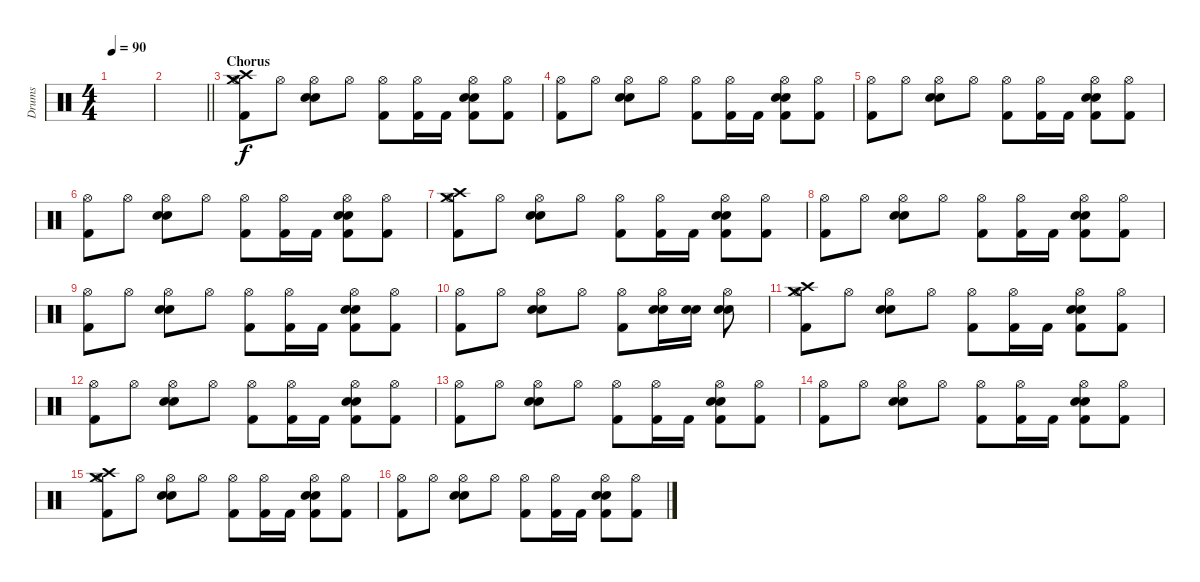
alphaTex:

\track ("Drums" "Drums") {instrument percussion}
\staff {score}
\articulation defaults
\ts (4 4)
\tempo 90
\clef neutral
\ks c
|
\barLineRight lightlight
|
\section ("" "Chorus")
("Hi-Hat (open)" "Crash high (hit)" "Crash medium (hit)" "Kick (hit) 2").8 "Hi-Hat (open)".8 ("Hi-Hat (open)" "Electric Snare (hit)" "Electric Snare (hit)").8 "Hi-Hat (open)".8 ("Hi-Hat (open)" "Kick (hit) 2").8 ("Hi-Hat (open)" "Kick (hit) 2").16 "Kick (hit) 2".16 ("Hi-Hat (open)" "Electric Snare (hit)" "Electric Snare (hit)" "Kick (hit) 2").8 ("Hi-Hat (open)" "Kick (hit) 2").8 |
("Hi-Hat (open)" "Kick (hit) 2").8 "Hi-Hat (open)".8 ("Hi-Hat (open)" "Electric Snare (hit)" "Electric Snare (hit)").8 "Hi-Hat (open)".8 ("Hi-Hat (open)" "Kick (hit) 2").8 ("Hi-Hat (open)" "Kick (hit) 2").16 "Kick (hit) 2".16 ("Hi-Hat (open)" "Electric Snare (hit)" "Electric Snare (hit)" "Kick (hit) 2").8 ("Hi-Hat (open)" "Kick (hit) 2").8 |
("Hi-Hat (open)" "Kick (hit) 2").8 "Hi-Hat (open)".8 ("Hi-Hat (open)" "Electric Snare (hit)" "Electric Snare (hit)").8 "Hi-Hat (open)".8 ("Hi-Hat (open)" "Kick (hit) 2").8 ("Hi-Hat (open)" "Kick (hit) 2").16 "Kick (hit) 2".16 ("Hi-Hat (open)" "Electric Snare (hit)" "Electric Snare (hit)" "Kick (hit) 2").8 ("Hi-Hat (open)" "Kick (hit) 2").8 |
("Hi-Hat (open)" "Kick (hit) 2").8 "Hi-Hat (open)".8 ("Hi-Hat (open)" "Electric Snare (hit)" "Electric Snare (hit)").8 "Hi-Hat (open)".8 ("Hi-Hat (open)" "Kick (hit) 2").8 ("Hi-Hat (open)" "Kick (hit) 2").16 "Kick (hit) 2".16 ("Hi-Hat (open)" "Electric Snare (hit)" "Electric Snare (hit)" "Kick (hit) 2").8 ("Hi-Hat (open)" "Kick (hit) 2").8 |
("Hi-Hat (open)" "Crash high (hit)" "Crash medium (hit)" "Kick (hit) 2").8 "Hi-Hat (open)".8 ("Hi-Hat (open)" "Electric Snare (hit)" "Electric Snare (hit)").8 "Hi-Hat (open)".8 ("Hi-Hat (open)" "Kick (hit) 2").8 ("Hi-Hat (open)" "Kick (hit) 2").16 "Kick (hit) 2".16 ("Hi-Hat (open)" "Electric Snare (hit)" "Electric Snare (hit)" "Kick (hit) 2").8 ("Hi-Hat (open)" "Kick (hit) 2").8 |
("Hi-Hat (open)" "Kick (hit) 2").8 "Hi-Hat (open)".8 ("Hi-Hat (open)" "Electric Snare (hit)" "Electric Snare (hit)").8 "Hi-Hat (open)".8 ("Hi-Hat (open)" "Kick (hit) 2").8 ("Hi-Hat (open)" "Kick (hit) 2").16 "Kick (hit) 2".16 ("Hi-Hat (open)" "Electric Snare (hit)" "Electric Snare (hit)" "Kick (hit) 2").8 ("Hi-Hat (open)" "Kick (hit) 2").8 |
("Hi-Hat (open)" "Kick (hit) 2").8 "Hi-Hat (open)".8 ("Hi-Hat (open)" "Electric Snare (hit)" "Electric Snare (hit)").8 "Hi-Hat (open)".8 ("Hi-Hat (open)" "Kick (hit) 2").8 ("Hi-Hat (open)" "Kick (hit) 2").16 "Kick (hit) 2".16 ("Hi-Hat (open)" "Electric Snare (hit)" "Electric Snare (hit)" "Kick (hit) 2").8 ("Hi-Hat (open)" "Kick (hit) 2").8 |
("Hi-Hat (open)" "Kick (hit) 2").8 "Hi-Hat (open)".8 ("Hi-Hat (open)" "Electric Snare (hit)" "Electric Snare (hit)").8 "Hi-Hat (open)".8 ("Hi-Hat (open)" "Kick (hit) 2").8 ("Hi-Hat (open)" "Electric Snare (hit)" "Electric Snare (hit)").16 ("Electric Snare (hit)" "Electric Snare (hit)").16 ("Hi-Hat (open)" "Electric Snare (hit)" "Electric Snare (hit)").8 |
("Hi-Hat (open)" "Crash high (hit)" "Crash medium (hit)" "Kick (hit) 2").8 "Hi-Hat (open)".8 ("Hi-Hat (open)" "Electric Snare (hit)" "Electric Snare (hit)").8 "Hi-Hat (open)".8 ("Hi-Hat (open)" "Kick (hit) 2").8 ("Hi-Hat (open)" "Kick (hit) 2").16 "Kick (hit) 2".16 ("Hi-Hat (open)" "Electric Snare (hit)" "Electric Snare (hit)" "Kick (hit) 2").8 ("Hi-Hat (open)" "Kick (hit) 2").8 |
("Hi-Hat (open)" "Kick (hit) 2").8 "Hi-Hat (open)".8 ("Hi-Hat (open)" "Electric Snare (hit)" "Electric Snare (hit)").8 "Hi-Hat (open)".8 ("Hi-Hat (open)" "Kick (hit) 2").8 ("Hi-Hat (open)" "Kick (hit) 2").16 "Kick (hit) 2".16 ("Hi-Hat (open)" "Electric Snare (hit)" "Electric Snare (hit)" "Kick (hit) 2").8 ("Hi-Hat (open)" "Kick (hit) 2").8 |
("Hi-Hat (open)" "Kick (hit) 2").8 "Hi-Hat (open)".8 ("Hi-Hat (open)" "Electric Snare (hit)" "Electric Snare (hit)").8 "Hi-Hat (open)".8 ("Hi-Hat (open)" "Kick (hit) 2").8 ("Hi-Hat (open)" "Kick (hit) 2").16 "Kick (hit) 2".16 ("Hi-Hat (open)" "Electric Snare (hit)" "Electric Snare (hit)" "Kick (hit) 2").8 ("Hi-Hat (open)" "Kick (hit) 2").8 |
("Hi-Hat (open)" "Kick (hit) 2").8 "Hi-Hat (open)".8 ("Hi-Hat (open)" "Electric Snare (hit)" "Electric Snare (hit)").8 "Hi-Hat (open)".8 ("Hi-Hat (open)" "Kick (hit) 2").8 ("Hi-Hat (open)" "Kick (hit) 2").16 "Kick (hit) 2".16 ("Hi-Hat (open)" "Electric Snare (hit)" "Electric Snare (hit)" "Kick (hit) 2").8 ("Hi-Hat (open)" "Kick (hit) 2").8 |
("Hi-Hat (open)" "Crash high (hit)" "Crash medium (hit)" "Kick (hit) 2").8 "Hi-Hat (open)".8 ("Hi-Hat (open)" "Electric Snare (hit)" "Electric Snare (hit)").8 "Hi-Hat (open)".8 ("Hi-Hat (open)" "Kick (hit) 2").8 ("Hi-Hat (open)" "Kick (hit) 2").16 "Kick (hit) 2".16 ("Hi-Hat (open)" "Electric Snare (hit)" "Electric Snare (hit)" "Kick (hit) 2").8 ("Hi-Hat (open)" "Kick (hit) 2").8 |
("Hi-Hat (open)" "Kick (hit) 2").8 "Hi-Hat (open)".8 ("Hi-Hat (open)" "Electric Snare (hit)" "Electric Snare (hit)").8 "Hi-Hat (open)".8 ("Hi-Hat (open)" "Kick (hit) 2").8 ("Hi-Hat (open)" "Kick (hit) 2").16 "Kick (hit) 2".16 ("Hi-Hat (open)" "Electric Snare (hit)" "Electric Snare (hit)" "Kick (hit) 2").8 ("Hi-Hat (open)" "Kick (hit) 2").8
